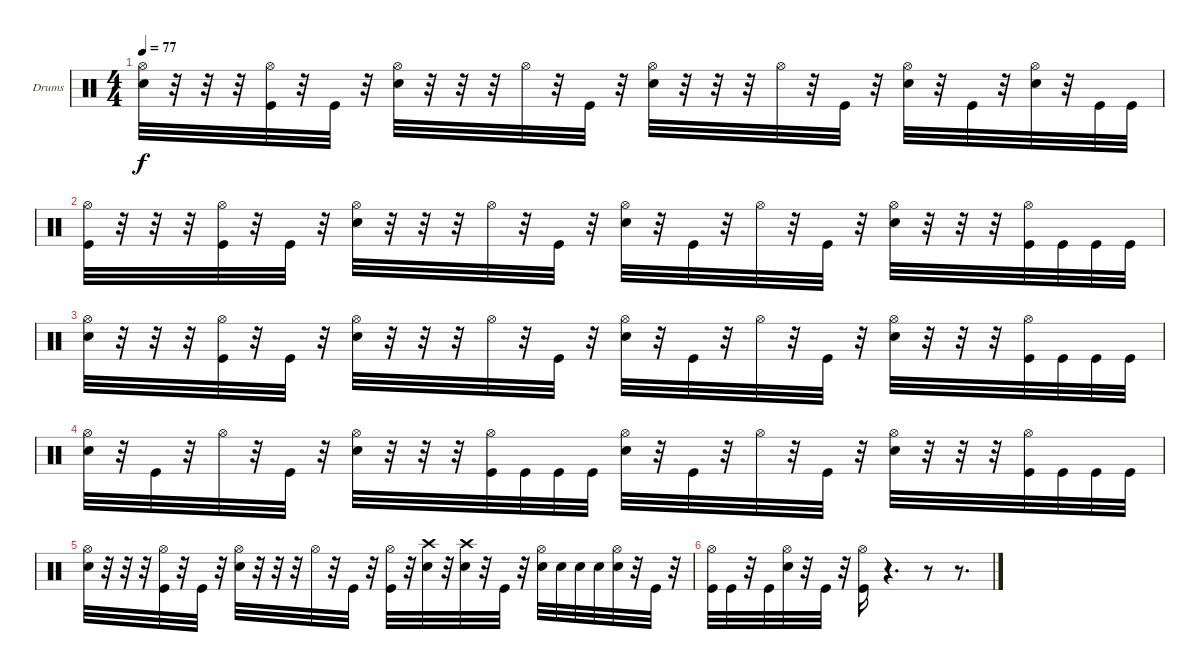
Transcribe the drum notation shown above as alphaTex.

\defaultSystemsLayout 4
\bracketExtendMode groupsimilarinstruments
\firstSystemTrackNameOrientation horizontal
\otherSystemsTrackNameOrientation horizontal
\track ("Drumkit" "Drums") {instrument percussion}
\staff {score}
\articulation defaults
\ts (4 4)
\tempo 77
\clef neutral
\ks c
("Hi-Hat (open)" "Snare (hit) 2").32{dy f} r.32 r.32 r.32 ("Hi-Hat (open)" "Kick (hit)").32 r.32 "Kick (hit)".32 r.32 ("Hi-Hat (open)" "Snare (hit) 2").32 r.32 r.32 r.32 "Hi-Hat (open)".32 r.32 "Kick (hit)".32 r.32 ("Hi-Hat (open)" "Snare (hit) 2").32 r.32 r.32 r.32 "Hi-Hat (open)".32 r.32 "Kick (hit)".32 r.32 ("Hi-Hat (open)" "Snare (hit) 2").32 r.32 "Kick (hit)".32 r.32 ("Hi-Hat (open)" "Snare (hit) 2").32 r.32 "Kick (hit)".32 "Kick (hit)".32 |
("Hi-Hat (open)" "Kick (hit)").32 r.32 r.32 r.32 ("Hi-Hat (open)" "Kick (hit)").32 r.32 "Kick (hit)".32 r.32 ("Hi-Hat (open)" "Snare (hit) 2").32 r.32 r.32 r.32 "Hi-Hat (open)".32 r.32 "Kick (hit)".32 r.32 ("Hi-Hat (open)" "Snare (hit) 2").32 r.32 "Kick (hit)".32 r.32 "Hi-Hat (open)".32 r.32 "Kick (hit)".32 r.32 ("Hi-Hat (open)" "Snare (hit) 2").32 r.32 r.32 r.32 ("Hi-Hat (open)" "Kick (hit)").32 "Kick (hit)".32 "Kick (hit)".32 "Kick (hit)".32 |
("Hi-Hat (open)" "Snare (hit) 2").32 r.32 r.32 r.32 ("Hi-Hat (open)" "Kick (hit)").32 r.32 "Kick (hit)".32 r.32 ("Hi-Hat (open)" "Snare (hit) 2").32 r.32 r.32 r.32 "Hi-Hat (open)".32 r.32 "Kick (hit)".32 r.32 ("Hi-Hat (open)" "Snare (hit) 2").32 r.32 "Kick (hit)".32 r.32 "Hi-Hat (open)".32 r.32 "Kick (hit)".32 r.32 ("Hi-Hat (open)" "Snare (hit) 2").32 r.32 r.32 r.32 ("Hi-Hat (open)" "Kick (hit)").32 "Kick (hit)".32 "Kick (hit)".32 "Kick (hit)".32 |
("Hi-Hat (open)" "Snare (hit) 2").32 r.32 "Kick (hit)".32 r.32 "Hi-Hat (open)".32 r.32 "Kick (hit)".32 r.32 ("Hi-Hat (open)" "Snare (hit) 2").32 r.32 r.32 r.32 ("Hi-Hat (open)" "Kick (hit)").32 "Kick (hit)".32 "Kick (hit)".32 "Kick (hit)".32 ("Hi-Hat (open)" "Snare (hit) 2").32 r.32 "Kick (hit)".32 r.32 "Hi-Hat (open)".32 r.32 "Kick (hit)".32 r.32 ("Hi-Hat (open)" "Snare (hit) 2").32 r.32 r.32 r.32 ("Hi-Hat (open)" "Kick (hit)").32 "Kick (hit)".32 "Kick (hit)".32 "Kick (hit)".32 |
("Hi-Hat (open)" "Snare (hit) 2").32 r.32 r.32 r.32 ("Hi-Hat (open)" "Kick (hit)").32 r.32 "Kick (hit)".32 r.32 ("Hi-Hat (open)" "Snare (hit) 2").32 r.32 r.32 r.32 "Hi-Hat (open)".32 r.32 "Kick (hit)".32 r.32 ("Hi-Hat (open)" "Kick (hit)").32 r.32 ("Crash high (hit)" "Snare (hit) 2").32 r.32 ("Crash high (hit)" "Snare (hit) 2").32 r.32 "Kick (hit)".32 r.32 ("Hi-Hat (open)" "Snare (hit) 2").32 "Snare (hit) 2".32 "Snare (hit) 2".32 "Snare (hit) 2".32 ("Hi-Hat (open)" "Snare (hit) 2").32 r.32 "Kick (hit)".32 r.32 |
("Hi-Hat (open)" "Kick (hit)").32 "Kick (hit)".32 r.32 "Kick (hit)".32 ("Hi-Hat (open)" "Snare (hit) 2").32 r.32 "Kick (hit)".32 r.32 ("Hi-Hat (open)" "Kick (hit)").16 r.4{d} r.8 r.8{d}
